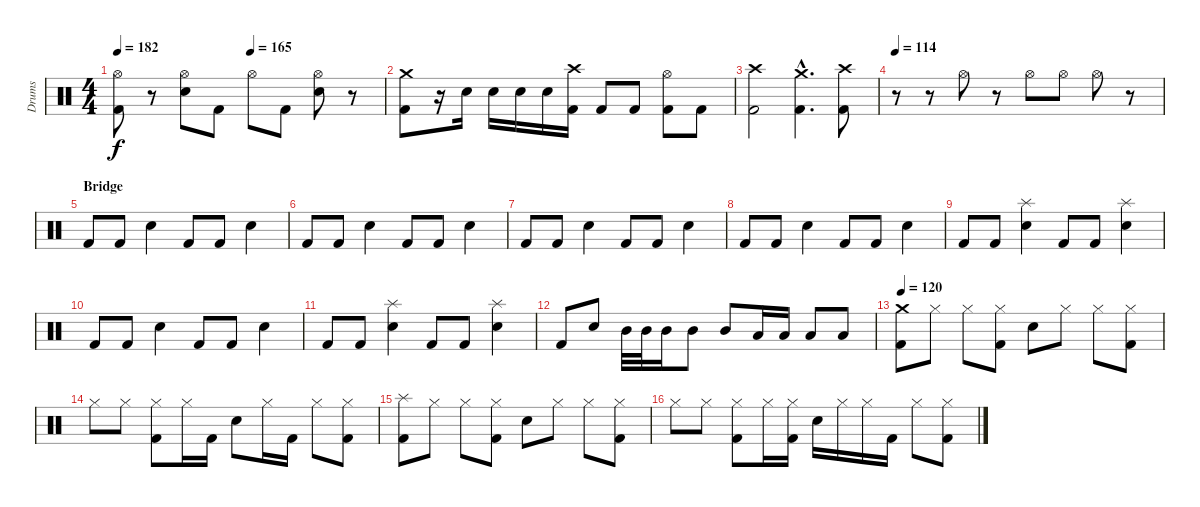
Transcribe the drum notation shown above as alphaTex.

\track ("Drums" "Drums") {instrument percussion}
\staff {score}
\articulation defaults
\ts (4 4)
\tempo 182
\tempo (165 0.5)
\clef neutral
\ks c
("Hi-Hat (open)" "Kick (hit) 2").8{dy f} r.8 ("Hi-Hat (open)" "Snare (hit) 2").8 "Kick (hit) 2".8 "Hi-Hat (open)".8 "Kick (hit) 2".8 ("Hi-Hat (open)" "Snare (hit) 2").8 r.8 |
("Crash medium (hit)" "Kick (hit) 2").8 r.16 "Snare (hit) 2".16 "Snare (hit) 2".16 "Snare (hit) 2".16 "Snare (hit) 2".16 ("Crash high (hit)" "Kick (hit) 2").16 "Kick (hit) 2".8 "Kick (hit) 2".8 ("Hi-Hat (open)" "Kick (hit) 2").8 "Kick (hit) 2".8 |
("Crash high (hit)" "Kick (hit) 2").2 ("Crash medium (hit)"{hac} "Kick (hit) 2"{hac}).4{d} ("Crash high (hit)" "Kick (hit) 2").8 |
\tempo 114
r.8 r.8 "Hi-Hat (open)".8 r.8 "Hi-Hat (open)".8 "Hi-Hat (open)".8 "Hi-Hat (open)".8 r.8 |
\section ("" "Bridge")
"Kick (hit) 2".8 "Kick (hit) 2".8 "Snare (hit) 2".4 "Kick (hit) 2".8 "Kick (hit) 2".8 "Snare (hit) 2".4 |
"Kick (hit) 2".8 "Kick (hit) 2".8 "Snare (hit) 2".4 "Kick (hit) 2".8 "Kick (hit) 2".8 "Snare (hit) 2".4 |
"Kick (hit) 2".8 "Kick (hit) 2".8 "Snare (hit) 2".4 "Kick (hit) 2".8 "Kick (hit) 2".8 "Snare (hit) 2".4 |
"Kick (hit) 2".8 "Kick (hit) 2".8 "Snare (hit) 2".4 "Kick (hit) 2".8 "Kick (hit) 2".8 "Snare (hit) 2".4 |
"Kick (hit) 2".8 "Kick (hit) 2".8 ("Splash (hit)" "Snare (hit) 2").4 "Kick (hit) 2".8 "Kick (hit) 2".8 ("Splash (hit)" "Snare (hit) 2").4 |
"Kick (hit) 2".8 "Kick (hit) 2".8 "Snare (hit) 2".4 "Kick (hit) 2".8 "Kick (hit) 2".8 "Snare (hit) 2".4 |
"Kick (hit) 2".8 "Kick (hit) 2".8 ("Splash (hit)" "Snare (hit) 2").4 "Kick (hit) 2".8 "Kick (hit) 2".8 ("Splash (hit)" "Snare (hit) 2").4 |
"Kick (hit) 2".8 "Snare (hit) 2".8 "Mid Tom (hit)".32 "Mid Tom (hit)".32 "Mid Tom (hit)".16 "Mid Tom (hit)".8 "Mid Tom (hit)".8 "Low Tom (hit)".16 "Low Tom (hit)".16 "Low Tom (hit)".8 "Low Tom (hit)".8 |
\tempo 120
("Crash medium (hit)" "Kick (hit) 2").8 "Hi-Hat (closed)".8 "Hi-Hat (closed)".8 ("Hi-Hat (closed)" "Kick (hit) 2").8 "Snare (hit) 2".8 "Hi-Hat (closed)".8 "Hi-Hat (closed)".8 ("Hi-Hat (closed)" "Kick (hit) 2").8 |
"Hi-Hat (closed)".8 "Hi-Hat (closed)".8 ("Hi-Hat (closed)" "Kick (hit) 2").8 "Hi-Hat (closed)".16 "Kick (hit) 2".16 "Snare (hit) 2".8 "Hi-Hat (closed)".16 "Kick (hit) 2".16 "Hi-Hat (closed)".8 ("Hi-Hat (closed)" "Kick (hit) 2").8 |
("Splash (hit)" "Kick (hit) 2").8 "Hi-Hat (closed)".8 "Hi-Hat (closed)".8 ("Hi-Hat (closed)" "Kick (hit) 2").8 "Snare (hit) 2".8 "Hi-Hat (closed)".8 "Hi-Hat (closed)".8 ("Hi-Hat (closed)" "Kick (hit) 2").8 |
"Hi-Hat (closed)".8 "Hi-Hat (closed)".8 ("Hi-Hat (closed)" "Kick (hit) 2").8 "Hi-Hat (closed)".16 ("Hi-Hat (closed)" "Kick (hit) 2").16 "Snare (hit) 2".16 "Hi-Hat (closed)".16 "Hi-Hat (closed)".16 "Kick (hit) 2".16 "Hi-Hat (closed)".8 ("Hi-Hat (closed)" "Kick (hit) 2").8
